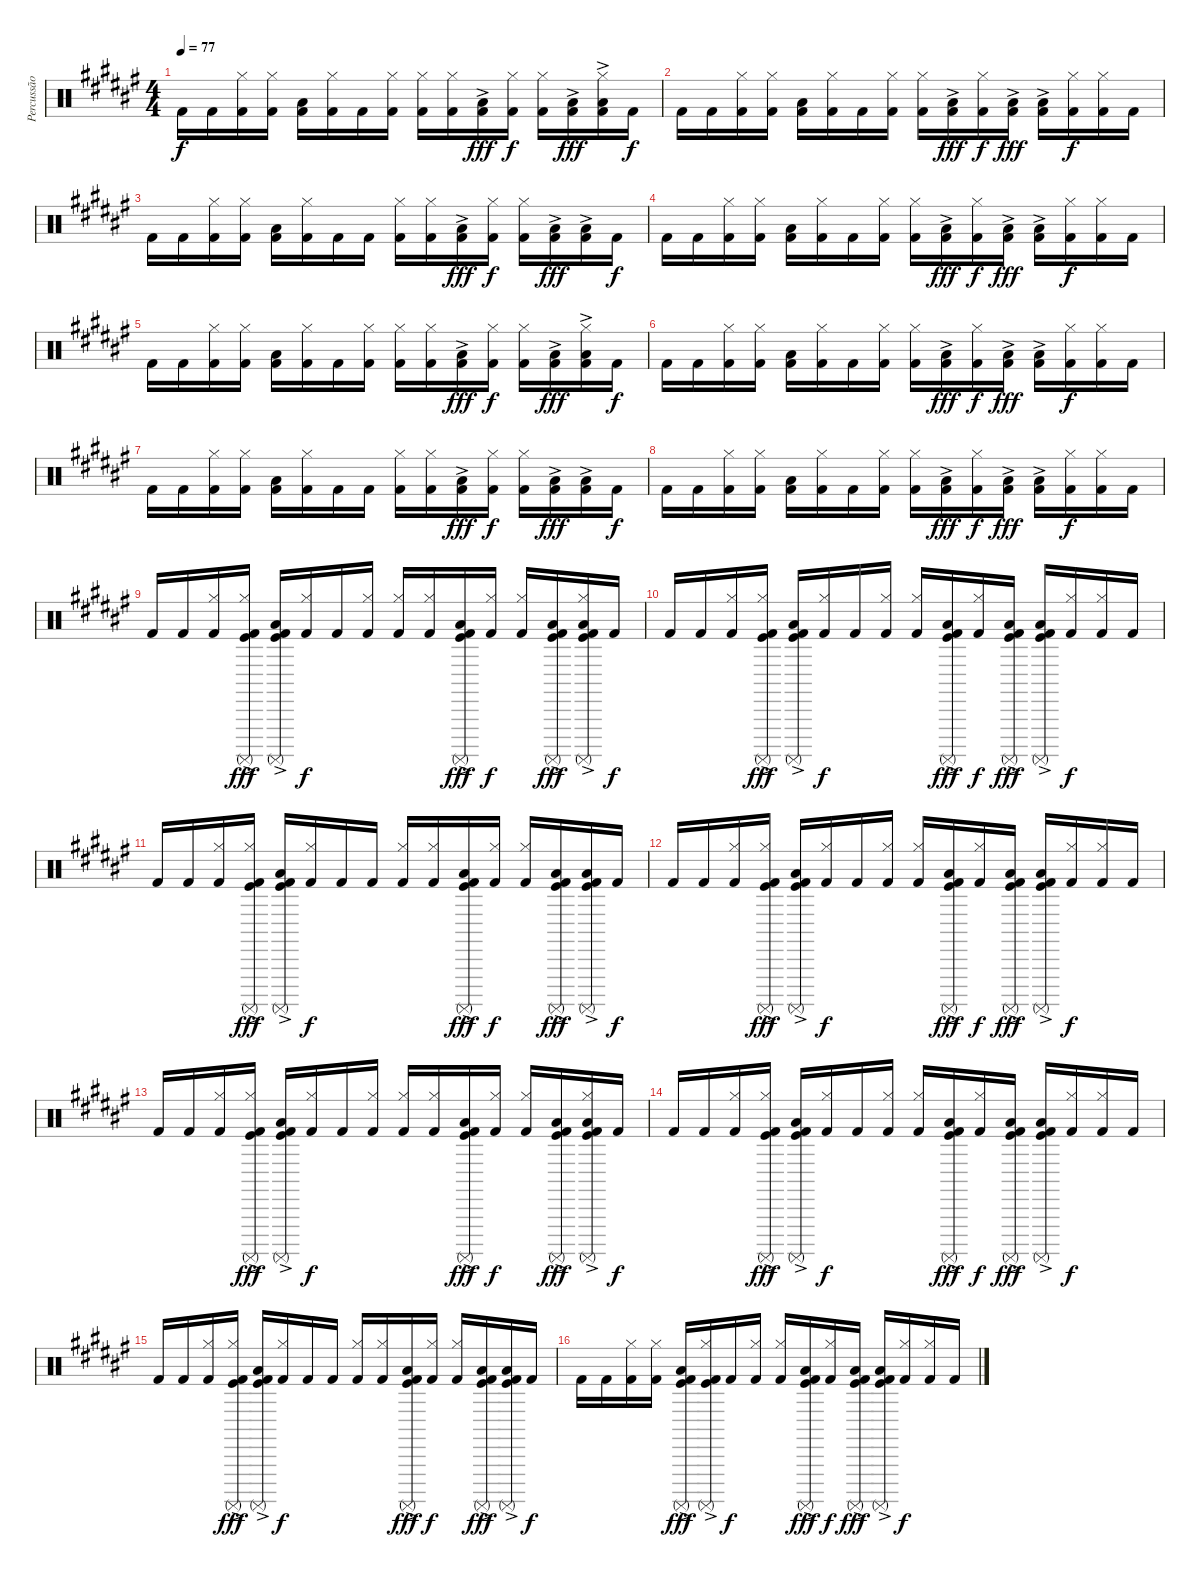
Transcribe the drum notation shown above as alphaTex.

\track ("Percussão" "Percussão") {instrument percussion}
\staff {score}
\articulation defaults
\ts (4 4)
\tempo 77
\clef neutral
\ks d#minor "Kick (hit) 2".16{dy f} "Kick (hit) 2".16
("Kick (hit) 2" "Hi-Hat (closed)").16 ("Kick (hit) 2" "Hi-Hat (closed)").16 ("Kick (hit) 2" "Low Floor Tom (hit)").16 ("Kick (hit) 2" "Hi-Hat (closed)").16 "Kick (hit) 2".16 ("Kick (hit) 2" "Hi-Hat (closed)").16 ("Kick (hit) 2" "Hi-Hat (closed)").16 ("Kick (hit) 2" "Hi-Hat (closed)").16 ("Kick (hit) 2"{ac} "Low Floor Tom (hit)").16{dy fff} ("Kick (hit) 2" "Hi-Hat (closed)").16{dy f} ("Kick (hit) 2" "Hi-Hat (closed)").16 ("Kick (hit) 2"{ac} "Low Floor Tom (hit)").16{dy fff} ("Kick (hit) 2"{ac} "Hi-Hat (closed)" "Low Floor Tom (hit)").16 "Kick (hit) 2".16{dy f} |
"Kick (hit) 2".16 "Kick (hit) 2".16 ("Kick (hit) 2" "Hi-Hat (closed)").16 ("Kick (hit) 2" "Hi-Hat (closed)").16 ("Kick (hit) 2" "Low Floor Tom (hit)").16 ("Kick (hit) 2" "Hi-Hat (closed)").16 "Kick (hit) 2".16 ("Kick (hit) 2" "Hi-Hat (closed)").16 ("Kick (hit) 2" "Hi-Hat (closed)").16 ("Kick (hit) 2"{ac} "Low Floor Tom (hit)").16{dy fff} ("Kick (hit) 2" "Hi-Hat (closed)").16{dy f} ("Kick (hit) 2"{ac} "Low Floor Tom (hit)").16{dy fff} ("Kick (hit) 2"{ac} "Low Floor Tom (hit)").16 ("Kick (hit) 2" "Hi-Hat (closed)").16{dy f} ("Kick (hit) 2" "Hi-Hat (closed)").16 "Kick (hit) 2".16 |
"Kick (hit) 2".16 "Kick (hit) 2".16 ("Kick (hit) 2" "Hi-Hat (closed)").16 ("Kick (hit) 2" "Hi-Hat (closed)").16 ("Kick (hit) 2" "Low Floor Tom (hit)").16 ("Kick (hit) 2" "Hi-Hat (closed)").16 "Kick (hit) 2".16 "Kick (hit) 2".16 ("Kick (hit) 2" "Hi-Hat (closed)").16 ("Kick (hit) 2" "Hi-Hat (closed)").16 ("Kick (hit) 2"{ac} "Low Floor Tom (hit)").16{dy fff} ("Kick (hit) 2" "Hi-Hat (closed)").16{dy f} ("Kick (hit) 2" "Hi-Hat (closed)").16 ("Kick (hit) 2"{ac} "Low Floor Tom (hit)").16{dy fff} ("Kick (hit) 2"{ac} "Low Floor Tom (hit)").16 "Kick (hit) 2".16{dy f} |
"Kick (hit) 2".16 "Kick (hit) 2".16 ("Kick (hit) 2" "Hi-Hat (closed)").16 ("Kick (hit) 2" "Hi-Hat (closed)").16 ("Kick (hit) 2" "Low Floor Tom (hit)").16 ("Kick (hit) 2" "Hi-Hat (closed)").16 "Kick (hit) 2".16 ("Kick (hit) 2" "Hi-Hat (closed)").16 ("Kick (hit) 2" "Hi-Hat (closed)").16 ("Kick (hit) 2"{ac} "Low Floor Tom (hit)").16{dy fff} ("Kick (hit) 2" "Hi-Hat (closed)").16{dy f} ("Kick (hit) 2"{ac} "Low Floor Tom (hit)").16{dy fff} ("Kick (hit) 2"{ac} "Low Floor Tom (hit)").16 ("Kick (hit) 2" "Hi-Hat (closed)").16{dy f} ("Kick (hit) 2" "Hi-Hat (closed)").16 "Kick (hit) 2".16 |
"Kick (hit) 2".16 "Kick (hit) 2".16 ("Kick (hit) 2" "Hi-Hat (closed)").16 ("Kick (hit) 2" "Hi-Hat (closed)").16 ("Kick (hit) 2" "Low Floor Tom (hit)").16 ("Kick (hit) 2" "Hi-Hat (closed)").16 "Kick (hit) 2".16 ("Kick (hit) 2" "Hi-Hat (closed)").16 ("Kick (hit) 2" "Hi-Hat (closed)").16 ("Kick (hit) 2" "Hi-Hat (closed)").16 ("Kick (hit) 2"{ac} "Low Floor Tom (hit)").16{dy fff} ("Kick (hit) 2" "Hi-Hat (closed)").16{dy f} ("Kick (hit) 2" "Hi-Hat (closed)").16 ("Kick (hit) 2"{ac} "Low Floor Tom (hit)").16{dy fff} ("Kick (hit) 2"{ac} "Hi-Hat (closed)" "Low Floor Tom (hit)").16 "Kick (hit) 2".16{dy f} |
"Kick (hit) 2".16 "Kick (hit) 2".16 ("Kick (hit) 2" "Hi-Hat (closed)").16 ("Kick (hit) 2" "Hi-Hat (closed)").16 ("Kick (hit) 2" "Low Floor Tom (hit)").16 ("Kick (hit) 2" "Hi-Hat (closed)").16 "Kick (hit) 2".16 ("Kick (hit) 2" "Hi-Hat (closed)").16 ("Kick (hit) 2" "Hi-Hat (closed)").16 ("Kick (hit) 2"{ac} "Low Floor Tom (hit)").16{dy fff} ("Kick (hit) 2" "Hi-Hat (closed)").16{dy f} ("Kick (hit) 2"{ac} "Low Floor Tom (hit)").16{dy fff} ("Kick (hit) 2"{ac} "Low Floor Tom (hit)").16 ("Kick (hit) 2" "Hi-Hat (closed)").16{dy f} ("Kick (hit) 2" "Hi-Hat (closed)").16 "Kick (hit) 2".16 |
"Kick (hit) 2".16 "Kick (hit) 2".16 ("Kick (hit) 2" "Hi-Hat (closed)").16 ("Kick (hit) 2" "Hi-Hat (closed)").16 ("Kick (hit) 2" "Low Floor Tom (hit)").16 ("Kick (hit) 2" "Hi-Hat (closed)").16 "Kick (hit) 2".16 "Kick (hit) 2".16 ("Kick (hit) 2" "Hi-Hat (closed)").16 ("Kick (hit) 2" "Hi-Hat (closed)").16 ("Kick (hit) 2"{ac} "Low Floor Tom (hit)").16{dy fff} ("Kick (hit) 2" "Hi-Hat (closed)").16{dy f} ("Kick (hit) 2" "Hi-Hat (closed)").16 ("Kick (hit) 2"{ac} "Low Floor Tom (hit)").16{dy fff} ("Kick (hit) 2"{ac} "Low Floor Tom (hit)").16 "Kick (hit) 2".16{dy f} |
"Kick (hit) 2".16 "Kick (hit) 2".16 ("Kick (hit) 2" "Hi-Hat (closed)").16 ("Kick (hit) 2" "Hi-Hat (closed)").16 ("Kick (hit) 2" "Low Floor Tom (hit)").16 ("Kick (hit) 2" "Hi-Hat (closed)").16 "Kick (hit) 2".16 ("Kick (hit) 2" "Hi-Hat (closed)").16 ("Kick (hit) 2" "Hi-Hat (closed)").16 ("Kick (hit) 2"{ac} "Low Floor Tom (hit)").16{dy fff} ("Kick (hit) 2" "Hi-Hat (closed)").16{dy f} ("Kick (hit) 2"{ac} "Low Floor Tom (hit)").16{dy fff} ("Kick (hit) 2"{ac} "Low Floor Tom (hit)").16 ("Kick (hit) 2" "Hi-Hat (closed)").16{dy f} ("Kick (hit) 2" "Hi-Hat (closed)").16 "Kick (hit) 2".16 |
"Kick (hit) 2".16 "Kick (hit) 2".16 ("Kick (hit) 2" "Hi-Hat (closed)").16 ("Kick (hit)"{ac} "Kick (hit) 2" "Hi-Hat (closed)" "Surdo (mute)").16{dy fff} ("Kick (hit)"{ac} "Kick (hit) 2" "Low Floor Tom (hit)" "Surdo (mute)").16 ("Kick (hit) 2" "Hi-Hat (closed)").16{dy f} "Kick (hit) 2".16 ("Kick (hit) 2" "Hi-Hat (closed)").16 ("Kick (hit) 2" "Hi-Hat (closed)").16 ("Kick (hit) 2" "Hi-Hat (closed)").16 ("Kick (hit)" "Kick (hit) 2"{ac} "Low Floor Tom (hit)" "Surdo (mute)").16{dy fff} ("Kick (hit) 2" "Hi-Hat (closed)").16{dy f} ("Kick (hit) 2" "Hi-Hat (closed)").16 ("Kick (hit)" "Kick (hit) 2"{ac} "Low Floor Tom (hit)" "Surdo (mute)").16{dy fff} ("Kick (hit)" "Kick (hit) 2"{ac} "Hi-Hat (closed)" "Low Floor Tom (hit)" "Surdo (mute)").16 "Kick (hit) 2".16{dy f} |
"Kick (hit) 2".16 "Kick (hit) 2".16 ("Kick (hit) 2" "Hi-Hat (closed)").16 ("Kick (hit)"{ac} "Kick (hit) 2" "Hi-Hat (closed)" "Surdo (mute)").16{dy fff} ("Kick (hit)"{ac} "Kick (hit) 2" "Low Floor Tom (hit)" "Surdo (mute)").16 ("Kick (hit) 2" "Hi-Hat (closed)").16{dy f} "Kick (hit) 2".16 ("Kick (hit) 2" "Hi-Hat (closed)").16 ("Kick (hit) 2" "Hi-Hat (closed)").16 ("Kick (hit)" "Kick (hit) 2"{ac} "Low Floor Tom (hit)" "Surdo (mute)").16{dy fff} ("Kick (hit) 2" "Hi-Hat (closed)").16{dy f} ("Kick (hit)" "Kick (hit) 2"{ac} "Low Floor Tom (hit)" "Surdo (mute)").16{dy fff} ("Kick (hit)" "Kick (hit) 2"{ac} "Low Floor Tom (hit)" "Surdo (mute)").16 ("Kick (hit) 2" "Hi-Hat (closed)").16{dy f} ("Kick (hit) 2" "Hi-Hat (closed)").16 "Kick (hit) 2".16 |
"Kick (hit) 2".16 "Kick (hit) 2".16 ("Kick (hit) 2" "Hi-Hat (closed)").16 ("Kick (hit)"{ac} "Kick (hit) 2" "Hi-Hat (closed)" "Surdo (mute)").16{dy fff} ("Kick (hit)"{ac} "Kick (hit) 2" "Low Floor Tom (hit)" "Surdo (mute)").16 ("Kick (hit) 2" "Hi-Hat (closed)").16{dy f} "Kick (hit) 2".16 "Kick (hit) 2".16 ("Kick (hit) 2" "Hi-Hat (closed)").16 ("Kick (hit) 2" "Hi-Hat (closed)").16 ("Kick (hit)" "Kick (hit) 2"{ac} "Low Floor Tom (hit)" "Surdo (mute)").16{dy fff} ("Kick (hit) 2" "Hi-Hat (closed)").16{dy f} ("Kick (hit) 2" "Hi-Hat (closed)").16 ("Kick (hit)" "Kick (hit) 2"{ac} "Low Floor Tom (hit)" "Surdo (mute)").16{dy fff} ("Kick (hit)" "Kick (hit) 2"{ac} "Low Floor Tom (hit)" "Surdo (mute)").16 "Kick (hit) 2".16{dy f} |
"Kick (hit) 2".16 "Kick (hit) 2".16 ("Kick (hit) 2" "Hi-Hat (closed)").16 ("Kick (hit)"{ac} "Kick (hit) 2" "Hi-Hat (closed)" "Surdo (mute)").16{dy fff} ("Kick (hit)"{ac} "Kick (hit) 2" "Low Floor Tom (hit)" "Surdo (mute)").16 ("Kick (hit) 2" "Hi-Hat (closed)").16{dy f} "Kick (hit) 2".16 ("Kick (hit) 2" "Hi-Hat (closed)").16 ("Kick (hit) 2" "Hi-Hat (closed)").16 ("Kick (hit)" "Kick (hit) 2"{ac} "Low Floor Tom (hit)" "Surdo (mute)").16{dy fff} ("Kick (hit) 2" "Hi-Hat (closed)").16{dy f} ("Kick (hit)" "Kick (hit) 2"{ac} "Low Floor Tom (hit)" "Surdo (mute)").16{dy fff} ("Kick (hit)" "Kick (hit) 2"{ac} "Low Floor Tom (hit)" "Surdo (mute)").16 ("Kick (hit) 2" "Hi-Hat (closed)").16{dy f} ("Kick (hit) 2" "Hi-Hat (closed)").16 "Kick (hit) 2".16 |
"Kick (hit) 2".16 "Kick (hit) 2".16 ("Kick (hit) 2" "Hi-Hat (closed)").16 ("Kick (hit)"{ac} "Kick (hit) 2" "Hi-Hat (closed)" "Surdo (mute)").16{dy fff} ("Kick (hit)"{ac} "Kick (hit) 2" "Low Floor Tom (hit)" "Surdo (mute)").16 ("Kick (hit) 2" "Hi-Hat (closed)").16{dy f} "Kick (hit) 2".16 ("Kick (hit) 2" "Hi-Hat (closed)").16 ("Kick (hit) 2" "Hi-Hat (closed)").16 ("Kick (hit) 2" "Hi-Hat (closed)").16 ("Kick (hit)" "Kick (hit) 2"{ac} "Low Floor Tom (hit)" "Surdo (mute)").16{dy fff} ("Kick (hit) 2" "Hi-Hat (closed)").16{dy f} ("Kick (hit) 2" "Hi-Hat (closed)").16 ("Kick (hit)" "Kick (hit) 2"{ac} "Low Floor Tom (hit)" "Surdo (mute)").16{dy fff} ("Kick (hit)" "Kick (hit) 2"{ac} "Hi-Hat (closed)" "Low Floor Tom (hit)" "Surdo (mute)").16 "Kick (hit) 2".16{dy f} |
"Kick (hit) 2".16 "Kick (hit) 2".16 ("Kick (hit) 2" "Hi-Hat (closed)").16 ("Kick (hit)"{ac} "Kick (hit) 2" "Hi-Hat (closed)" "Surdo (mute)").16{dy fff} ("Kick (hit)"{ac} "Kick (hit) 2" "Low Floor Tom (hit)" "Surdo (mute)").16 ("Kick (hit) 2" "Hi-Hat (closed)").16{dy f} "Kick (hit) 2".16 ("Kick (hit) 2" "Hi-Hat (closed)").16 ("Kick (hit) 2" "Hi-Hat (closed)").16 ("Kick (hit)" "Kick (hit) 2"{ac} "Low Floor Tom (hit)" "Surdo (mute)").16{dy fff} ("Kick (hit) 2" "Hi-Hat (closed)").16{dy f} ("Kick (hit)" "Kick (hit) 2"{ac} "Low Floor Tom (hit)" "Surdo (mute)").16{dy fff} ("Kick (hit)" "Kick (hit) 2"{ac} "Low Floor Tom (hit)" "Surdo (mute)").16 ("Kick (hit) 2" "Hi-Hat (closed)").16{dy f} ("Kick (hit) 2" "Hi-Hat (closed)").16 "Kick (hit) 2".16 |
"Kick (hit) 2".16 "Kick (hit) 2".16 ("Kick (hit) 2" "Hi-Hat (closed)").16 ("Kick (hit)"{ac} "Kick (hit) 2" "Hi-Hat (closed)" "Surdo (mute)").16{dy fff} ("Kick (hit)"{ac} "Kick (hit) 2" "Low Floor Tom (hit)" "Surdo (mute)").16 ("Kick (hit) 2" "Hi-Hat (closed)").16{dy f} "Kick (hit) 2".16 "Kick (hit) 2".16 ("Kick (hit) 2" "Hi-Hat (closed)").16 ("Kick (hit) 2" "Hi-Hat (closed)").16 ("Kick (hit)" "Kick (hit) 2"{ac} "Low Floor Tom (hit)" "Surdo (mute)").16{dy fff} ("Kick (hit) 2" "Hi-Hat (closed)").16{dy f} ("Kick (hit) 2" "Hi-Hat (closed)").16 ("Kick (hit)" "Kick (hit) 2"{ac} "Low Floor Tom (hit)" "Surdo (mute)").16{dy fff} ("Kick (hit)" "Kick (hit) 2"{ac} "Low Floor Tom (hit)" "Surdo (mute)").16 "Kick (hit) 2".16{dy f} |
"Kick (hit) 2".16 "Kick (hit) 2".16 ("Kick (hit) 2" "Hi-Hat (closed)").16 ("Kick (hit) 2" "Hi-Hat (closed)").16 ("Kick (hit)"{ac} "Kick (hit) 2" "Low Floor Tom (hit)" "Surdo (mute)").16{dy fff} ("Kick (hit)"{ac} "Kick (hit) 2" "Hi-Hat (closed)" "Surdo (mute)").16 "Kick (hit) 2".16{dy f} ("Kick (hit) 2" "Hi-Hat (closed)").16 ("Kick (hit) 2" "Hi-Hat (closed)").16 ("Kick (hit)" "Kick (hit) 2"{ac} "Low Floor Tom (hit)" "Surdo (mute)").16{dy fff} ("Kick (hit) 2" "Hi-Hat (closed)").16{dy f} ("Kick (hit)" "Kick (hit) 2"{ac} "Low Floor Tom (hit)" "Surdo (mute)").16{dy fff} ("Kick (hit)" "Kick (hit) 2"{ac} "Low Floor Tom (hit)" "Surdo (mute)").16 ("Kick (hit) 2" "Hi-Hat (closed)").16{dy f} ("Kick (hit) 2" "Hi-Hat (closed)").16 "Kick (hit) 2".16
